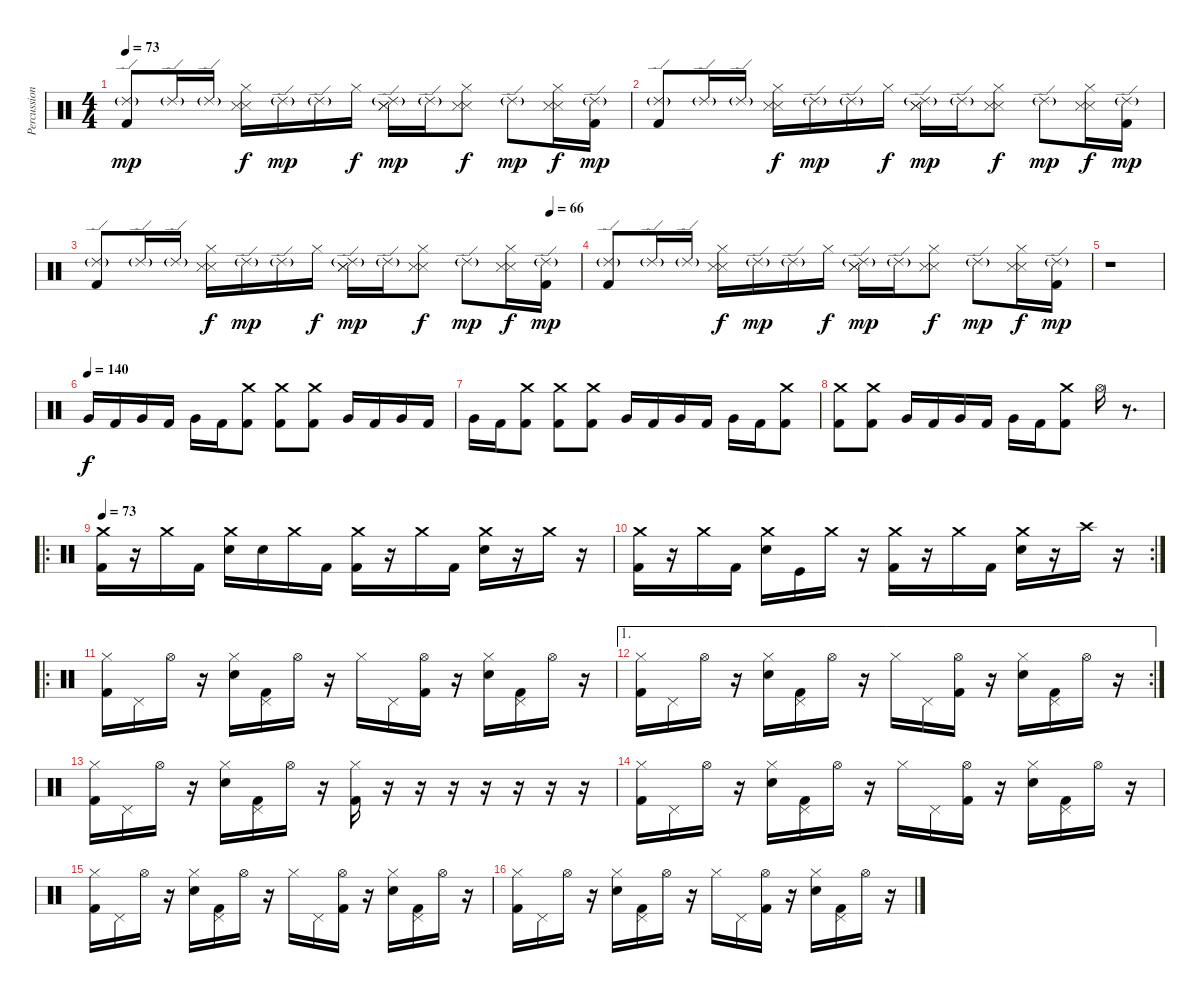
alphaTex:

\track ("Percussion" "Percussion") {instrument percussion}
\staff {score}
\articulation defaults
\ts (4 4)
\tempo 73
\clef neutral
\ks c
("Ride (edge) 2"{g} "Kick (hit) 2").8{dy mp} "Ride (edge) 2"{g}.16 "Ride (edge) 2"{g}.16 ("Hi-Hat (closed)" "Metronome (hit)" "Metronome (hit)").16{dy f} "Ride (edge) 2"{g}.16{dy mp} "Ride (edge) 2"{g}.16 "Hi-Hat (closed)".16{dy f} ("Ride (edge) 2"{g} "Metronome (hit)" "Metronome (hit)").16{dy mp} "Ride (edge) 2"{g}.16 ("Hi-Hat (closed)" "Metronome (hit)" "Metronome (hit)").8{dy f} "Ride (edge) 2"{g}.8{dy mp} ("Hi-Hat (closed)" "Metronome (hit)" "Metronome (hit)").16{dy f} ("Ride (edge) 2"{g} "Kick (hit) 2").16{dy mp volume 6} |
("Ride (edge) 2"{g} "Kick (hit) 2").8 "Ride (edge) 2"{g}.16 "Ride (edge) 2"{g}.16 ("Hi-Hat (closed)" "Metronome (hit)" "Metronome (hit)").16{dy f} "Ride (edge) 2"{g}.16{dy mp} "Ride (edge) 2"{g}.16 "Hi-Hat (closed)".16{dy f} ("Ride (edge) 2"{g} "Metronome (hit)" "Metronome (hit)").16{dy mp} "Ride (edge) 2"{g}.16 ("Hi-Hat (closed)" "Metronome (hit)" "Metronome (hit)").8{dy f} "Ride (edge) 2"{g}.8{dy mp} ("Hi-Hat (closed)" "Metronome (hit)" "Metronome (hit)").16{dy f} ("Ride (edge) 2"{g} "Kick (hit) 2").16{dy mp volume 4} |
\tempo (66 0.9375)
("Ride (edge) 2"{g} "Kick (hit) 2").8 "Ride (edge) 2"{g}.16 "Ride (edge) 2"{g}.16 ("Hi-Hat (closed)" "Metronome (hit)" "Metronome (hit)").16{dy f} "Ride (edge) 2"{g}.16{dy mp} "Ride (edge) 2"{g}.16 "Hi-Hat (closed)".16{dy f} ("Ride (edge) 2"{g} "Metronome (hit)" "Metronome (hit)").16{dy mp} "Ride (edge) 2"{g}.16 ("Hi-Hat (closed)" "Metronome (hit)" "Metronome (hit)").8{dy f} "Ride (edge) 2"{g}.8{dy mp} ("Hi-Hat (closed)" "Metronome (hit)" "Metronome (hit)").16{dy f} ("Ride (edge) 2"{g} "Kick (hit) 2").16{dy mp volume 0} |
("Ride (edge) 2"{g} "Kick (hit) 2").8 "Ride (edge) 2"{g}.16 "Ride (edge) 2"{g}.16 ("Hi-Hat (closed)" "Metronome (hit)" "Metronome (hit)").16{dy f} "Ride (edge) 2"{g}.16{dy mp} "Ride (edge) 2"{g}.16 "Hi-Hat (closed)".16{dy f} ("Ride (edge) 2"{g} "Metronome (hit)" "Metronome (hit)").16{dy mp} "Ride (edge) 2"{g}.16 ("Hi-Hat (closed)" "Metronome (hit)" "Metronome (hit)").8{dy f} "Ride (edge) 2"{g}.8{dy mp} ("Hi-Hat (closed)" "Metronome (hit)" "Metronome (hit)").16{dy f} ("Ride (edge) 2"{g} "Kick (hit) 2").16{dy mp} |
r.1 |
\tempo (140)
"Very Low Tom (hit)".16{dy f volume 13} "Kick (hit) 2".16 "Very Low Tom (hit)".16 "Kick (hit) 2".16 "Very Low Tom (hit)".16 "Kick (hit) 2".16 ("Crash medium (hit)" "Kick (hit) 2").8 ("Crash medium (hit)" "Kick (hit) 2").8 ("Crash medium (hit)" "Kick (hit) 2").8 "Very Low Tom (hit)".16 "Kick (hit) 2".16 "Very Low Tom (hit)".16 "Kick (hit) 2".16 |
"Very Low Tom (hit)".16 "Kick (hit) 2".16 ("Crash medium (hit)" "Kick (hit) 2").8 ("Crash medium (hit)" "Kick (hit) 2").8 ("Crash medium (hit)" "Kick (hit) 2").8 "Very Low Tom (hit)".16 "Kick (hit) 2".16 "Very Low Tom (hit)".16 "Kick (hit) 2".16 "Very Low Tom (hit)".16 "Kick (hit) 2".16 ("Crash medium (hit)" "Kick (hit) 2").8 |
("Crash medium (hit)" "Kick (hit) 2").8 ("Crash medium (hit)" "Kick (hit) 2").8 "Very Low Tom (hit)".16 "Kick (hit) 2".16 "Very Low Tom (hit)".16 "Kick (hit) 2".16 "Very Low Tom (hit)".16 "Kick (hit) 2".16 ("Crash medium (hit)" "Kick (hit) 2").8 "Hi-Hat (open)".16 r.8{d} |
\ro
\tempo 73
("Crash medium (hit)" "Kick (hit) 2").16 r.16 "Crash medium (hit)".16 "Kick (hit) 2".16 ("Crash medium (hit)" "Electric Snare (hit)").16 "Electric Snare (hit)".16 "Crash medium (hit)".16 "Kick (hit) 2".16 ("Crash medium (hit)" "Kick (hit) 2").16 r.16 "Crash medium (hit)".16 "Kick (hit) 2".16 ("Crash medium (hit)" "Electric Snare (hit)").16 r.16 "Crash medium (hit)".16 r.16 |
\rc 2
("Crash medium (hit)" "Kick (hit) 2").16 r.16 "Crash medium (hit)".16 "Kick (hit) 2".16 ("Crash medium (hit)" "Electric Snare (hit)").16 "Kick (hit)".16 "Crash medium (hit)".16 r.16 ("Crash medium (hit)" "Kick (hit) 2").16 r.16 "Crash medium (hit)".16 "Kick (hit) 2".16 ("Crash medium (hit)" "Electric Snare (hit)").16 r.16 "Crash high (hit)".16 r.16 |
\ro
("Hi-Hat (closed)" "Kick (hit) 2").16 "Pedal Hi-Hat (hit)".16 "Hi-Hat (open)".16 r.16 ("Hi-Hat (closed)" "Electric Snare (hit)").16 ("Pedal Hi-Hat (hit)" "Kick (hit) 2").16 "Hi-Hat (open)".16 r.16 "Hi-Hat (closed)".16 "Pedal Hi-Hat (hit)".16 ("Hi-Hat (open)" "Kick (hit) 2").16 r.16 ("Hi-Hat (closed)" "Electric Snare (hit)").16 ("Pedal Hi-Hat (hit)" "Kick (hit) 2").16 "Hi-Hat (open)".16 r.16 |
\ae 1
\rc 2
("Hi-Hat (closed)" "Kick (hit) 2").16 "Pedal Hi-Hat (hit)".16 "Hi-Hat (open)".16 r.16 ("Hi-Hat (closed)" "Electric Snare (hit)").16 ("Pedal Hi-Hat (hit)" "Kick (hit) 2").16 "Hi-Hat (open)".16 r.16 "Hi-Hat (closed)".16 "Pedal Hi-Hat (hit)".16 ("Hi-Hat (open)" "Kick (hit) 2").16 r.16 ("Hi-Hat (closed)" "Electric Snare (hit)").16 ("Pedal Hi-Hat (hit)" "Kick (hit) 2").16 "Hi-Hat (open)".16 r.16 |
("Hi-Hat (closed)" "Kick (hit) 2").16 "Pedal Hi-Hat (hit)".16 "Hi-Hat (open)".16 r.16 ("Hi-Hat (closed)" "Electric Snare (hit)").16 ("Pedal Hi-Hat (hit)" "Kick (hit) 2").16 "Hi-Hat (open)".16 r.16 ("Hi-Hat (closed)" "Kick (hit) 2").16 r.16 r.16 r.16 r.16 r.16 r.16 r.16 |
("Hi-Hat (closed)" "Kick (hit) 2").16 "Pedal Hi-Hat (hit)".16 "Hi-Hat (open)".16 r.16 ("Hi-Hat (closed)" "Electric Snare (hit)").16 ("Pedal Hi-Hat (hit)" "Kick (hit) 2").16 "Hi-Hat (open)".16 r.16 "Hi-Hat (closed)".16 "Pedal Hi-Hat (hit)".16 ("Hi-Hat (open)" "Kick (hit) 2").16 r.16 ("Hi-Hat (closed)" "Electric Snare (hit)").16 ("Pedal Hi-Hat (hit)" "Kick (hit) 2").16 "Hi-Hat (open)".16 r.16 |
("Hi-Hat (closed)" "Kick (hit) 2").16 "Pedal Hi-Hat (hit)".16 "Hi-Hat (open)".16 r.16 ("Hi-Hat (closed)" "Electric Snare (hit)").16 ("Pedal Hi-Hat (hit)" "Kick (hit) 2").16 "Hi-Hat (open)".16 r.16 "Hi-Hat (closed)".16 "Pedal Hi-Hat (hit)".16 ("Hi-Hat (open)" "Kick (hit) 2").16 r.16 ("Hi-Hat (closed)" "Electric Snare (hit)").16 ("Pedal Hi-Hat (hit)" "Kick (hit) 2").16 "Hi-Hat (open)".16 r.16 |
("Hi-Hat (closed)" "Kick (hit) 2").16 "Pedal Hi-Hat (hit)".16 "Hi-Hat (open)".16 r.16 ("Hi-Hat (closed)" "Electric Snare (hit)").16 ("Pedal Hi-Hat (hit)" "Kick (hit) 2").16 "Hi-Hat (open)".16 r.16 "Hi-Hat (closed)".16 "Pedal Hi-Hat (hit)".16 ("Hi-Hat (open)" "Kick (hit) 2").16 r.16 ("Hi-Hat (closed)" "Electric Snare (hit)").16 ("Pedal Hi-Hat (hit)" "Kick (hit) 2").16 "Hi-Hat (open)".16 r.16
